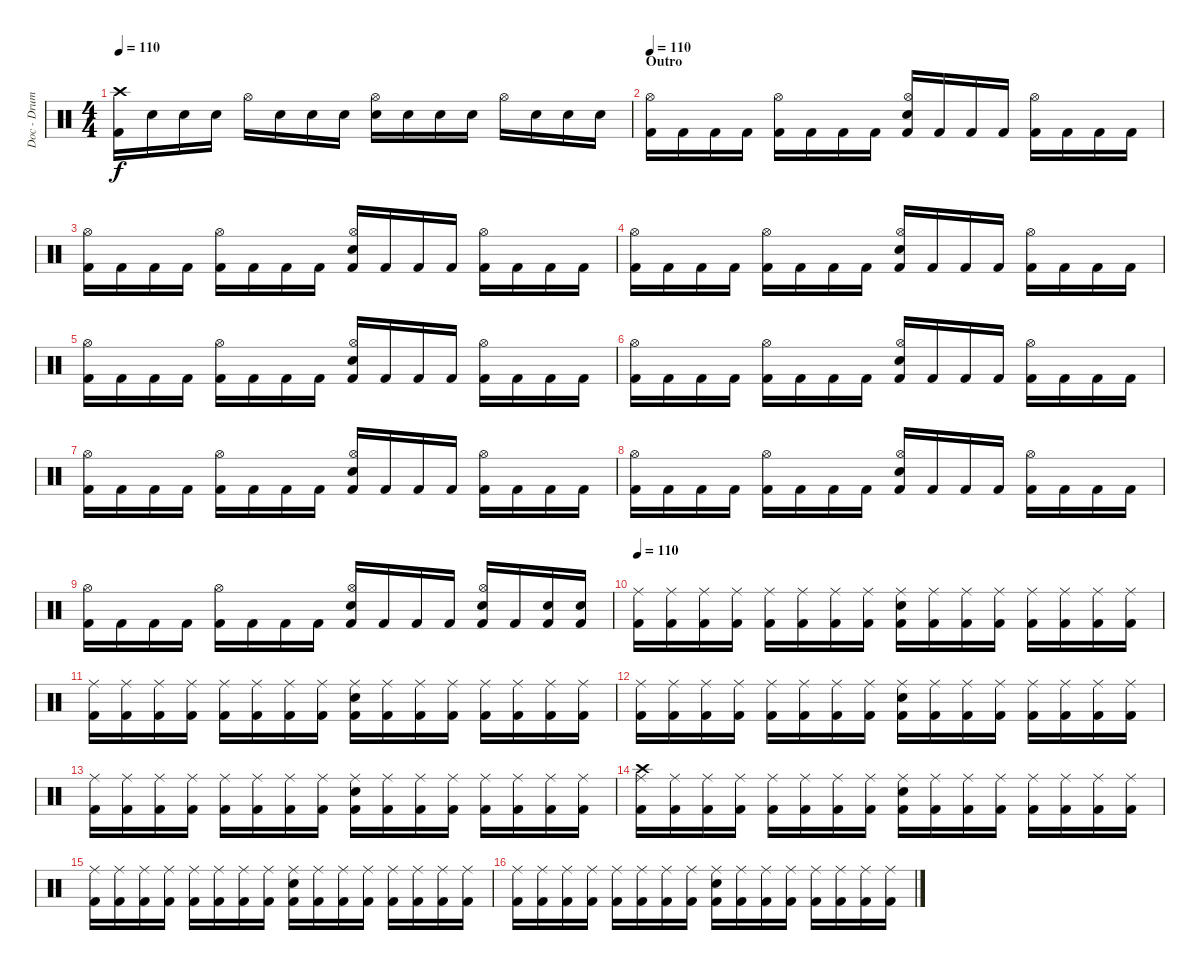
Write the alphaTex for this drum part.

\track ("Doc - Drums" "Doc - Drum") {instrument percussion}
\staff {score}
\articulation defaults
\ts (4 4)
\tempo 110
\clef neutral
\ks c
("Crash high (hit)" "Kick (hit) 2").16{dy f} "Snare (hit)".16 "Snare (hit)".16 "Snare (hit)".16 "Hi-Hat (open)".16 "Snare (hit)".16 "Snare (hit)".16 "Snare (hit)".16 ("Hi-Hat (open)" "Electric Snare (hit)").16 "Snare (hit)".16 "Snare (hit)".16 "Snare (hit)".16 "Hi-Hat (open)".16 "Snare (hit)".16 "Snare (hit)".16 "Snare (hit)".16 |
\section ("" "Outro")
\tempo 110
("Hi-Hat (open)" "Kick (hit) 2").16{volume 16 balance 8} "Kick (hit) 2".16 "Kick (hit) 2".16 "Kick (hit) 2".16 ("Hi-Hat (open)" "Kick (hit) 2").16 "Kick (hit) 2".16 "Kick (hit) 2".16 "Kick (hit) 2".16 ("Hi-Hat (open)" "Electric Snare (hit)" "Kick (hit) 2").16 "Kick (hit) 2".16 "Kick (hit) 2".16 "Kick (hit) 2".16 ("Hi-Hat (open)" "Kick (hit) 2").16 "Kick (hit) 2".16 "Kick (hit) 2".16 "Kick (hit) 2".16 |
("Hi-Hat (open)" "Kick (hit) 2").16 "Kick (hit) 2".16 "Kick (hit) 2".16 "Kick (hit) 2".16 ("Hi-Hat (open)" "Kick (hit) 2").16 "Kick (hit) 2".16 "Kick (hit) 2".16 "Kick (hit) 2".16 ("Hi-Hat (open)" "Electric Snare (hit)" "Kick (hit) 2").16 "Kick (hit) 2".16 "Kick (hit) 2".16 "Kick (hit) 2".16 ("Hi-Hat (open)" "Kick (hit) 2").16 "Kick (hit) 2".16 "Kick (hit) 2".16 "Kick (hit) 2".16 |
("Hi-Hat (open)" "Kick (hit) 2").16 "Kick (hit) 2".16 "Kick (hit) 2".16 "Kick (hit) 2".16 ("Hi-Hat (open)" "Kick (hit) 2").16 "Kick (hit) 2".16 "Kick (hit) 2".16 "Kick (hit) 2".16 ("Hi-Hat (open)" "Electric Snare (hit)" "Kick (hit) 2").16 "Kick (hit) 2".16 "Kick (hit) 2".16 "Kick (hit) 2".16 ("Hi-Hat (open)" "Kick (hit) 2").16 "Kick (hit) 2".16 "Kick (hit) 2".16 "Kick (hit) 2".16 |
("Hi-Hat (open)" "Kick (hit) 2").16 "Kick (hit) 2".16 "Kick (hit) 2".16 "Kick (hit) 2".16 ("Hi-Hat (open)" "Kick (hit) 2").16 "Kick (hit) 2".16 "Kick (hit) 2".16 "Kick (hit) 2".16 ("Hi-Hat (open)" "Electric Snare (hit)" "Kick (hit) 2").16 "Kick (hit) 2".16 "Kick (hit) 2".16 "Kick (hit) 2".16 ("Hi-Hat (open)" "Kick (hit) 2").16 "Kick (hit) 2".16 "Kick (hit) 2".16 "Kick (hit) 2".16 |
("Hi-Hat (open)" "Kick (hit) 2").16 "Kick (hit) 2".16 "Kick (hit) 2".16 "Kick (hit) 2".16 ("Hi-Hat (open)" "Kick (hit) 2").16 "Kick (hit) 2".16 "Kick (hit) 2".16 "Kick (hit) 2".16 ("Hi-Hat (open)" "Electric Snare (hit)" "Kick (hit) 2").16 "Kick (hit) 2".16 "Kick (hit) 2".16 "Kick (hit) 2".16 ("Hi-Hat (open)" "Kick (hit) 2").16 "Kick (hit) 2".16 "Kick (hit) 2".16 "Kick (hit) 2".16 |
("Hi-Hat (open)" "Kick (hit) 2").16 "Kick (hit) 2".16 "Kick (hit) 2".16 "Kick (hit) 2".16 ("Hi-Hat (open)" "Kick (hit) 2").16 "Kick (hit) 2".16 "Kick (hit) 2".16 "Kick (hit) 2".16 ("Hi-Hat (open)" "Electric Snare (hit)" "Kick (hit) 2").16 "Kick (hit) 2".16 "Kick (hit) 2".16 "Kick (hit) 2".16 ("Hi-Hat (open)" "Kick (hit) 2").16 "Kick (hit) 2".16 "Kick (hit) 2".16 "Kick (hit) 2".16 |
("Hi-Hat (open)" "Kick (hit) 2").16 "Kick (hit) 2".16 "Kick (hit) 2".16 "Kick (hit) 2".16 ("Hi-Hat (open)" "Kick (hit) 2").16 "Kick (hit) 2".16 "Kick (hit) 2".16 "Kick (hit) 2".16 ("Hi-Hat (open)" "Electric Snare (hit)" "Kick (hit) 2").16 "Kick (hit) 2".16 "Kick (hit) 2".16 "Kick (hit) 2".16 ("Hi-Hat (open)" "Kick (hit) 2").16 "Kick (hit) 2".16 "Kick (hit) 2".16 "Kick (hit) 2".16 |
("Hi-Hat (open)" "Kick (hit) 2").16 "Kick (hit) 2".16 "Kick (hit) 2".16 "Kick (hit) 2".16 ("Hi-Hat (open)" "Kick (hit) 2").16 "Kick (hit) 2".16 "Kick (hit) 2".16 "Kick (hit) 2".16 ("Hi-Hat (open)" "Electric Snare (hit)" "Kick (hit) 2").16 "Kick (hit) 2".16 "Kick (hit) 2".16 "Kick (hit) 2".16 ("Hi-Hat (open)" "Electric Snare (hit)" "Kick (hit) 2").16 "Kick (hit) 2".16 ("Electric Snare (hit)" "Kick (hit) 2").16 ("Electric Snare (hit)" "Kick (hit) 2").16 |
\tempo 110
("Ride (middle)" "Kick (hit) 2").16{volume 16 balance 8} ("Ride (middle)" "Kick (hit) 2").16 ("Ride (middle)" "Kick (hit) 2").16 ("Ride (middle)" "Kick (hit) 2").16 ("Ride (middle)" "Kick (hit) 2").16 ("Ride (middle)" "Kick (hit) 2").16 ("Ride (middle)" "Kick (hit) 2").16 ("Ride (middle)" "Kick (hit) 2").16 ("Ride (middle)" "Electric Snare (hit)" "Kick (hit) 2").16 ("Ride (middle)" "Kick (hit) 2").16 ("Ride (middle)" "Kick (hit) 2").16 ("Ride (middle)" "Kick (hit) 2").16 ("Ride (middle)" "Kick (hit) 2").16 ("Ride (middle)" "Kick (hit) 2").16 ("Ride (middle)" "Kick (hit) 2").16 ("Ride (middle)" "Kick (hit) 2").16 |
("Ride (middle)" "Kick (hit) 2").16 ("Ride (middle)" "Kick (hit) 2").16 ("Ride (middle)" "Kick (hit) 2").16 ("Ride (middle)" "Kick (hit) 2").16 ("Ride (middle)" "Kick (hit) 2").16 ("Ride (middle)" "Kick (hit) 2").16 ("Ride (middle)" "Kick (hit) 2").16 ("Ride (middle)" "Kick (hit) 2").16 ("Ride (middle)" "Electric Snare (hit)" "Kick (hit) 2").16 ("Ride (middle)" "Kick (hit) 2").16 ("Ride (middle)" "Kick (hit) 2").16 ("Ride (middle)" "Kick (hit) 2").16 ("Ride (middle)" "Kick (hit) 2").16 ("Ride (middle)" "Kick (hit) 2").16 ("Ride (middle)" "Kick (hit) 2").16 ("Ride (middle)" "Kick (hit) 2").16 |
("Ride (middle)" "Kick (hit) 2").16 ("Ride (middle)" "Kick (hit) 2").16 ("Ride (middle)" "Kick (hit) 2").16 ("Ride (middle)" "Kick (hit) 2").16 ("Ride (middle)" "Kick (hit) 2").16 ("Ride (middle)" "Kick (hit) 2").16 ("Ride (middle)" "Kick (hit) 2").16 ("Ride (middle)" "Kick (hit) 2").16 ("Ride (middle)" "Electric Snare (hit)" "Kick (hit) 2").16 ("Ride (middle)" "Kick (hit) 2").16 ("Ride (middle)" "Kick (hit) 2").16 ("Ride (middle)" "Kick (hit) 2").16 ("Ride (middle)" "Kick (hit) 2").16 ("Ride (middle)" "Kick (hit) 2").16 ("Ride (middle)" "Kick (hit) 2").16 ("Ride (middle)" "Kick (hit) 2").16 |
("Ride (middle)" "Kick (hit) 2").16 ("Ride (middle)" "Kick (hit) 2").16 ("Ride (middle)" "Kick (hit) 2").16 ("Ride (middle)" "Kick (hit) 2").16 ("Ride (middle)" "Kick (hit) 2").16 ("Ride (middle)" "Kick (hit) 2").16 ("Ride (middle)" "Kick (hit) 2").16 ("Ride (middle)" "Kick (hit) 2").16 ("Ride (middle)" "Electric Snare (hit)" "Kick (hit) 2").16 ("Ride (middle)" "Kick (hit) 2").16 ("Ride (middle)" "Kick (hit) 2").16 ("Ride (middle)" "Kick (hit) 2").16 ("Ride (middle)" "Kick (hit) 2").16 ("Ride (middle)" "Kick (hit) 2").16 ("Ride (middle)" "Kick (hit) 2").16 ("Ride (middle)" "Kick (hit) 2").16 |
("Ride (middle)" "Crash high (hit)" "Kick (hit) 2").16 ("Ride (middle)" "Kick (hit) 2").16 ("Ride (middle)" "Kick (hit) 2").16 ("Ride (middle)" "Kick (hit) 2").16 ("Ride (middle)" "Kick (hit) 2").16 ("Ride (middle)" "Kick (hit) 2").16 ("Ride (middle)" "Kick (hit) 2").16 ("Ride (middle)" "Kick (hit) 2").16 ("Ride (middle)" "Electric Snare (hit)" "Kick (hit) 2").16 ("Ride (middle)" "Kick (hit) 2").16 ("Ride (middle)" "Kick (hit) 2").16 ("Ride (middle)" "Kick (hit) 2").16 ("Ride (middle)" "Kick (hit) 2").16 ("Ride (middle)" "Kick (hit) 2").16 ("Ride (middle)" "Kick (hit) 2").16 ("Ride (middle)" "Kick (hit) 2").16 |
("Ride (middle)" "Kick (hit) 2").16 ("Ride (middle)" "Kick (hit) 2").16 ("Ride (middle)" "Kick (hit) 2").16 ("Ride (middle)" "Kick (hit) 2").16 ("Ride (middle)" "Kick (hit) 2").16 ("Ride (middle)" "Kick (hit) 2").16 ("Ride (middle)" "Kick (hit) 2").16 ("Ride (middle)" "Kick (hit) 2").16 ("Ride (middle)" "Electric Snare (hit)" "Kick (hit) 2").16 ("Ride (middle)" "Kick (hit) 2").16 ("Ride (middle)" "Kick (hit) 2").16 ("Ride (middle)" "Kick (hit) 2").16 ("Ride (middle)" "Kick (hit) 2").16 ("Ride (middle)" "Kick (hit) 2").16 ("Ride (middle)" "Kick (hit) 2").16 ("Ride (middle)" "Kick (hit) 2").16 |
("Ride (middle)" "Kick (hit) 2").16 ("Ride (middle)" "Kick (hit) 2").16 ("Ride (middle)" "Kick (hit) 2").16 ("Ride (middle)" "Kick (hit) 2").16 ("Ride (middle)" "Kick (hit) 2").16 ("Ride (middle)" "Kick (hit) 2").16 ("Ride (middle)" "Kick (hit) 2").16 ("Ride (middle)" "Kick (hit) 2").16 ("Ride (middle)" "Electric Snare (hit)" "Kick (hit) 2").16 ("Ride (middle)" "Kick (hit) 2").16 ("Ride (middle)" "Kick (hit) 2").16 ("Ride (middle)" "Kick (hit) 2").16 ("Ride (middle)" "Kick (hit) 2").16 ("Ride (middle)" "Kick (hit) 2").16 ("Ride (middle)" "Kick (hit) 2").16 ("Ride (middle)" "Kick (hit) 2").16
